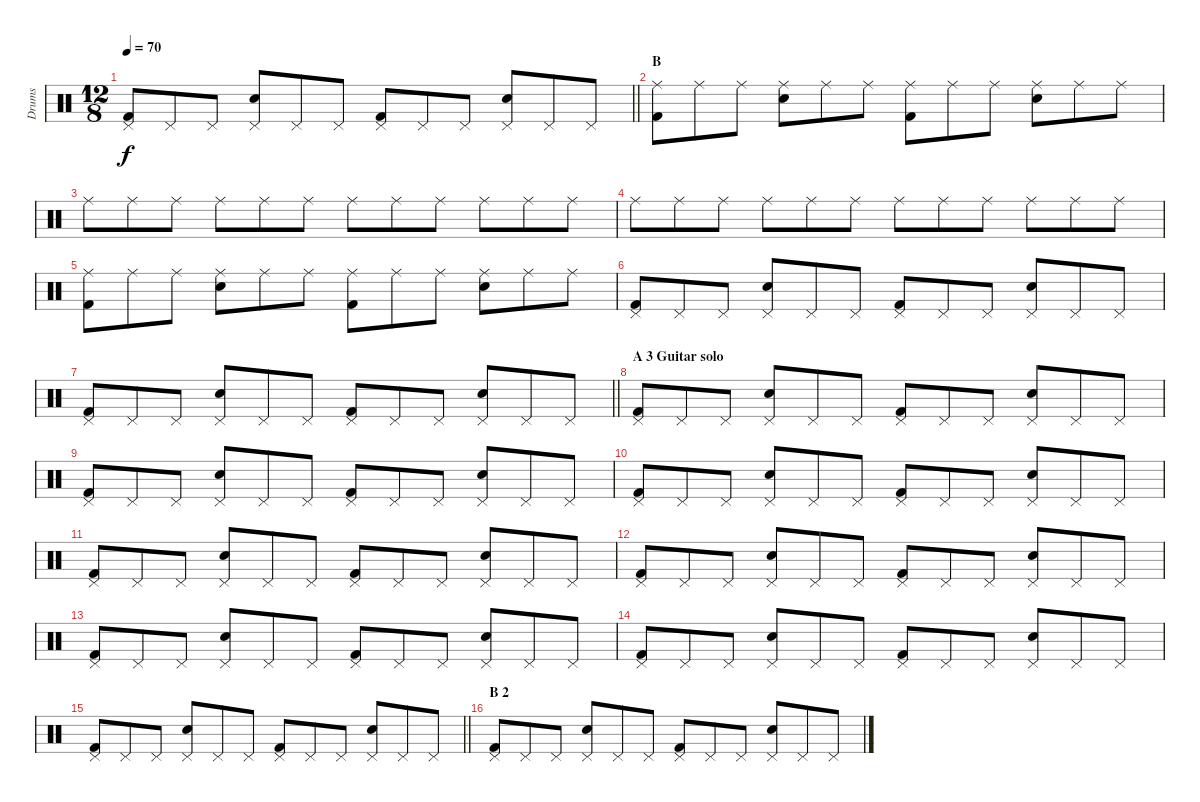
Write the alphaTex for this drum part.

\track ("Drums" "Drums") {instrument percussion}
\staff {score}
\articulation defaults
\ts (12 8)
\tempo 70
\clef neutral
\barLineRight lightlight
\ks c
("Pedal Hi-Hat (hit)" "Kick (hit) 2").8{dy f} "Pedal Hi-Hat (hit)".8 "Pedal Hi-Hat (hit)".8 ("Pedal Hi-Hat (hit)" "Electric Snare (hit)").8 "Pedal Hi-Hat (hit)".8 "Pedal Hi-Hat (hit)".8 ("Pedal Hi-Hat (hit)" "Kick (hit) 2").8 "Pedal Hi-Hat (hit)".8 "Pedal Hi-Hat (hit)".8 ("Pedal Hi-Hat (hit)" "Electric Snare (hit)").8 "Pedal Hi-Hat (hit)".8 "Pedal Hi-Hat (hit)".8 |
\section ("" "B")
("Ride (middle)" "Kick (hit) 2").8 "Ride (middle)".8 "Ride (middle)".8 ("Ride (middle)" "Electric Snare (hit)").8 "Ride (middle)".8 "Ride (middle)".8 ("Ride (middle)" "Kick (hit) 2").8 "Ride (middle)".8 "Ride (middle)".8 ("Ride (middle)" "Electric Snare (hit)").8 "Ride (middle)".8 "Ride (middle)".8 |
"Ride (middle)".8 "Ride (middle)".8 "Ride (middle)".8 "Ride (middle)".8 "Ride (middle)".8 "Ride (middle)".8 "Ride (middle)".8 "Ride (middle)".8 "Ride (middle)".8 "Ride (middle)".8 "Ride (middle)".8 "Ride (middle)".8 |
"Ride (middle)".8 "Ride (middle)".8 "Ride (middle)".8 "Ride (middle)".8 "Ride (middle)".8 "Ride (middle)".8 "Ride (middle)".8 "Ride (middle)".8 "Ride (middle)".8 "Ride (middle)".8 "Ride (middle)".8 "Ride (middle)".8 |
("Ride (middle)" "Kick (hit) 2").8 "Ride (middle)".8 "Ride (middle)".8 ("Ride (middle)" "Electric Snare (hit)").8 "Ride (middle)".8 "Ride (middle)".8 ("Ride (middle)" "Kick (hit) 2").8 "Ride (middle)".8 "Ride (middle)".8 ("Ride (middle)" "Electric Snare (hit)").8 "Ride (middle)".8 "Ride (middle)".8 |
("Pedal Hi-Hat (hit)" "Kick (hit) 2").8 "Pedal Hi-Hat (hit)".8 "Pedal Hi-Hat (hit)".8 ("Pedal Hi-Hat (hit)" "Electric Snare (hit)").8 "Pedal Hi-Hat (hit)".8 "Pedal Hi-Hat (hit)".8 ("Pedal Hi-Hat (hit)" "Kick (hit) 2").8 "Pedal Hi-Hat (hit)".8 "Pedal Hi-Hat (hit)".8 ("Pedal Hi-Hat (hit)" "Electric Snare (hit)").8 "Pedal Hi-Hat (hit)".8 "Pedal Hi-Hat (hit)".8 |
\barLineRight lightlight
("Pedal Hi-Hat (hit)" "Kick (hit) 2").8 "Pedal Hi-Hat (hit)".8 "Pedal Hi-Hat (hit)".8 ("Pedal Hi-Hat (hit)" "Electric Snare (hit)").8 "Pedal Hi-Hat (hit)".8 "Pedal Hi-Hat (hit)".8 ("Pedal Hi-Hat (hit)" "Kick (hit) 2").8 "Pedal Hi-Hat (hit)".8 "Pedal Hi-Hat (hit)".8 ("Pedal Hi-Hat (hit)" "Electric Snare (hit)").8 "Pedal Hi-Hat (hit)".8 "Pedal Hi-Hat (hit)".8 |
\section ("" "A 3 Guitar solo")
("Pedal Hi-Hat (hit)" "Kick (hit) 2").8 "Pedal Hi-Hat (hit)".8 "Pedal Hi-Hat (hit)".8 ("Pedal Hi-Hat (hit)" "Electric Snare (hit)").8 "Pedal Hi-Hat (hit)".8 "Pedal Hi-Hat (hit)".8 ("Pedal Hi-Hat (hit)" "Kick (hit) 2").8 "Pedal Hi-Hat (hit)".8 "Pedal Hi-Hat (hit)".8 ("Pedal Hi-Hat (hit)" "Electric Snare (hit)").8 "Pedal Hi-Hat (hit)".8 "Pedal Hi-Hat (hit)".8 |
("Pedal Hi-Hat (hit)" "Kick (hit) 2").8 "Pedal Hi-Hat (hit)".8 "Pedal Hi-Hat (hit)".8 ("Pedal Hi-Hat (hit)" "Electric Snare (hit)").8 "Pedal Hi-Hat (hit)".8 "Pedal Hi-Hat (hit)".8 ("Pedal Hi-Hat (hit)" "Kick (hit) 2").8 "Pedal Hi-Hat (hit)".8 "Pedal Hi-Hat (hit)".8 ("Pedal Hi-Hat (hit)" "Electric Snare (hit)").8 "Pedal Hi-Hat (hit)".8 "Pedal Hi-Hat (hit)".8 |
("Pedal Hi-Hat (hit)" "Kick (hit) 2").8 "Pedal Hi-Hat (hit)".8 "Pedal Hi-Hat (hit)".8 ("Pedal Hi-Hat (hit)" "Electric Snare (hit)").8 "Pedal Hi-Hat (hit)".8 "Pedal Hi-Hat (hit)".8 ("Pedal Hi-Hat (hit)" "Kick (hit) 2").8 "Pedal Hi-Hat (hit)".8 "Pedal Hi-Hat (hit)".8 ("Pedal Hi-Hat (hit)" "Electric Snare (hit)").8 "Pedal Hi-Hat (hit)".8 "Pedal Hi-Hat (hit)".8 |
("Pedal Hi-Hat (hit)" "Kick (hit) 2").8 "Pedal Hi-Hat (hit)".8 "Pedal Hi-Hat (hit)".8 ("Pedal Hi-Hat (hit)" "Electric Snare (hit)").8 "Pedal Hi-Hat (hit)".8 "Pedal Hi-Hat (hit)".8 ("Pedal Hi-Hat (hit)" "Kick (hit) 2").8 "Pedal Hi-Hat (hit)".8 "Pedal Hi-Hat (hit)".8 ("Pedal Hi-Hat (hit)" "Electric Snare (hit)").8 "Pedal Hi-Hat (hit)".8 "Pedal Hi-Hat (hit)".8 |
("Pedal Hi-Hat (hit)" "Kick (hit) 2").8 "Pedal Hi-Hat (hit)".8 "Pedal Hi-Hat (hit)".8 ("Pedal Hi-Hat (hit)" "Electric Snare (hit)").8 "Pedal Hi-Hat (hit)".8 "Pedal Hi-Hat (hit)".8 ("Pedal Hi-Hat (hit)" "Kick (hit) 2").8 "Pedal Hi-Hat (hit)".8 "Pedal Hi-Hat (hit)".8 ("Pedal Hi-Hat (hit)" "Electric Snare (hit)").8 "Pedal Hi-Hat (hit)".8 "Pedal Hi-Hat (hit)".8 |
("Pedal Hi-Hat (hit)" "Kick (hit) 2").8 "Pedal Hi-Hat (hit)".8 "Pedal Hi-Hat (hit)".8 ("Pedal Hi-Hat (hit)" "Electric Snare (hit)").8 "Pedal Hi-Hat (hit)".8 "Pedal Hi-Hat (hit)".8 ("Pedal Hi-Hat (hit)" "Kick (hit) 2").8 "Pedal Hi-Hat (hit)".8 "Pedal Hi-Hat (hit)".8 ("Pedal Hi-Hat (hit)" "Electric Snare (hit)").8 "Pedal Hi-Hat (hit)".8 "Pedal Hi-Hat (hit)".8 |
("Pedal Hi-Hat (hit)" "Kick (hit) 2").8 "Pedal Hi-Hat (hit)".8 "Pedal Hi-Hat (hit)".8 ("Pedal Hi-Hat (hit)" "Electric Snare (hit)").8 "Pedal Hi-Hat (hit)".8 "Pedal Hi-Hat (hit)".8 ("Pedal Hi-Hat (hit)" "Kick (hit) 2").8 "Pedal Hi-Hat (hit)".8 "Pedal Hi-Hat (hit)".8 ("Pedal Hi-Hat (hit)" "Electric Snare (hit)").8 "Pedal Hi-Hat (hit)".8 "Pedal Hi-Hat (hit)".8 |
\barLineRight lightlight
("Pedal Hi-Hat (hit)" "Kick (hit) 2").8 "Pedal Hi-Hat (hit)".8 "Pedal Hi-Hat (hit)".8 ("Pedal Hi-Hat (hit)" "Electric Snare (hit)").8 "Pedal Hi-Hat (hit)".8 "Pedal Hi-Hat (hit)".8 ("Pedal Hi-Hat (hit)" "Kick (hit) 2").8 "Pedal Hi-Hat (hit)".8 "Pedal Hi-Hat (hit)".8 ("Pedal Hi-Hat (hit)" "Electric Snare (hit)").8 "Pedal Hi-Hat (hit)".8 "Pedal Hi-Hat (hit)".8 |
\section ("" "B 2")
("Pedal Hi-Hat (hit)" "Kick (hit) 2").8 "Pedal Hi-Hat (hit)".8 "Pedal Hi-Hat (hit)".8 ("Pedal Hi-Hat (hit)" "Electric Snare (hit)").8 "Pedal Hi-Hat (hit)".8 "Pedal Hi-Hat (hit)".8 ("Pedal Hi-Hat (hit)" "Kick (hit) 2").8 "Pedal Hi-Hat (hit)".8 "Pedal Hi-Hat (hit)".8 ("Pedal Hi-Hat (hit)" "Electric Snare (hit)").8 "Pedal Hi-Hat (hit)".8 "Pedal Hi-Hat (hit)".8
